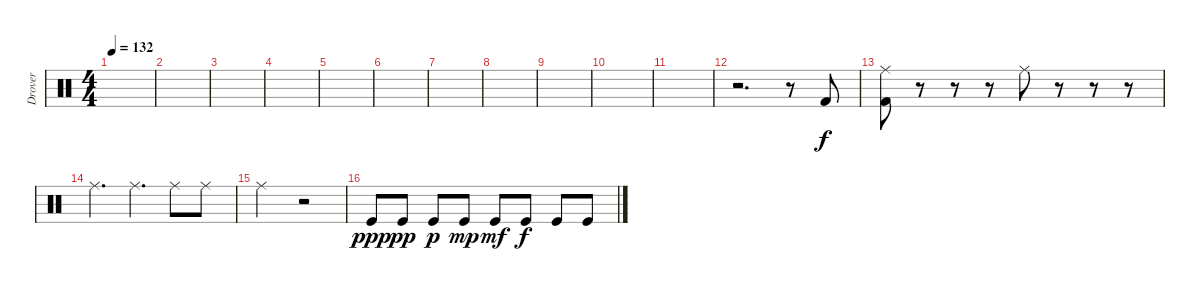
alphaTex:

\track ("Drover" "Drover") {instrument percussion}
\staff {score}
\articulation defaults
\ts (4 4)
\tempo 132
\clef neutral
\ks c
|
|
|
|
|
|
|
|
|
|
|
r.2{d} r.8 "Kick (hit) 2".8 |
("Ride (middle)" "Kick (hit) 2").8 r.8 r.8 r.8 "Ride (middle)".8 r.8 r.8 r.8 |
"Ride (middle)".4{d} "Ride (middle)".4{d} "Ride (middle)".8 "Ride (middle)".8 |
"Ride (middle)".2 r.2 |
"Kick (hit)".8{dy ppp} "Kick (hit)".8{dy pp} "Kick (hit)".8{dy p} "Kick (hit)".8{dy mp} "Kick (hit)".8{dy mf} "Kick (hit)".8{dy f} "Kick (hit)".8 "Kick (hit)".8
